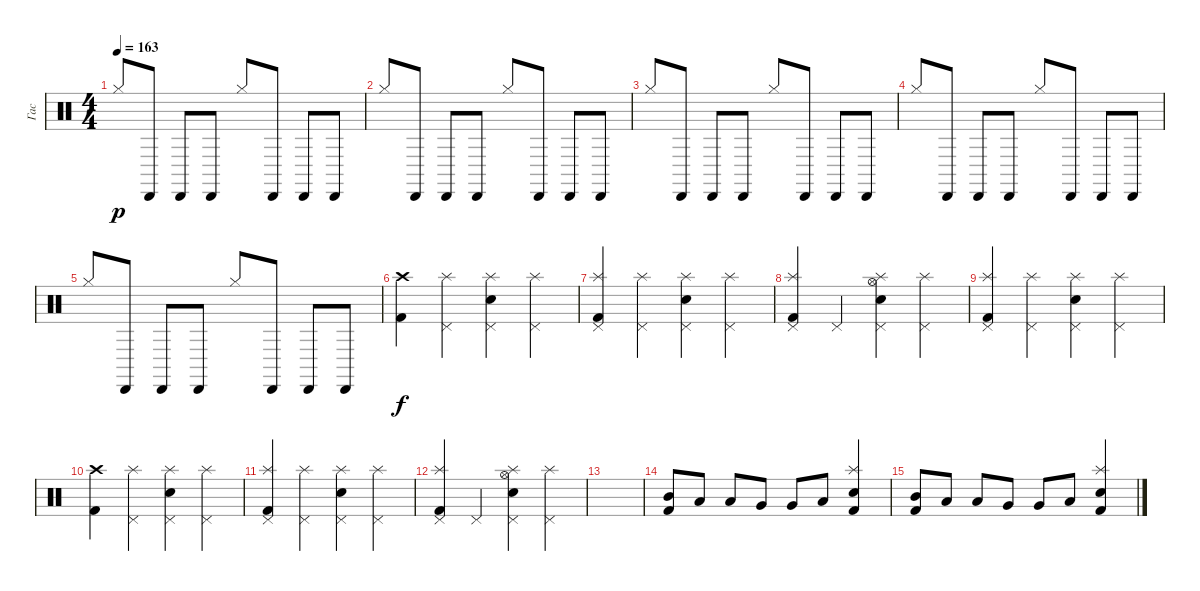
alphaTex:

\track ("Гас" "Гас") {instrument percussion}
\staff {score}
\articulation defaults
\ts (4 4)
\tempo 163
\clef neutral
\ks c "Hi-Hat (closed)".8{dy p} "Cabasa (hit)".8 "Cabasa (hit)".8 "Cabasa (hit)".8 "Hi-Hat (closed)".8 "Cabasa (hit)".8 "Cabasa (hit)".8 "Cabasa (hit)".8
|
"Hi-Hat (closed)".8 "Cabasa (hit)".8 "Cabasa (hit)".8 "Cabasa (hit)".8 "Hi-Hat (closed)".8 "Cabasa (hit)".8 "Cabasa (hit)".8 "Cabasa (hit)".8 |
"Hi-Hat (closed)".8 "Cabasa (hit)".8 "Cabasa (hit)".8 "Cabasa (hit)".8 "Hi-Hat (closed)".8 "Cabasa (hit)".8 "Cabasa (hit)".8 "Cabasa (hit)".8 |
"Hi-Hat (closed)".8 "Cabasa (hit)".8 "Cabasa (hit)".8 "Cabasa (hit)".8 "Hi-Hat (closed)".8 "Cabasa (hit)".8 "Cabasa (hit)".8 "Cabasa (hit)".8 |
"Hi-Hat (closed)".8 "Cabasa (hit)".8 "Cabasa (hit)".8 "Cabasa (hit)".8 "Hi-Hat (closed)".8 "Cabasa (hit)".8 "Cabasa (hit)".8 "Cabasa (hit)".8 |
("Crash high (hit)" "Kick (hit) 2").4{dy f} ("Splash (hit)" "Pedal Hi-Hat (hit)").4 ("Pedal Hi-Hat (hit)" "Splash (hit)" "Electric Snare (hit)").4 ("Splash (hit)" "Pedal Hi-Hat (hit)").4 |
("Pedal Hi-Hat (hit)" "Splash (hit)" "Kick (hit) 2").4 ("Splash (hit)" "Pedal Hi-Hat (hit)").4 ("Pedal Hi-Hat (hit)" "Splash (hit)" "Electric Snare (hit)").4 ("Splash (hit)" "Pedal Hi-Hat (hit)").4 |
("Pedal Hi-Hat (hit)" "Splash (hit)" "Kick (hit) 2").4 "Pedal Hi-Hat (hit)".4 ("Hi-Hat (open)" "Pedal Hi-Hat (hit)" "Splash (hit)" "Electric Snare (hit)").4 ("Splash (hit)" "Pedal Hi-Hat (hit)").4 |
("Pedal Hi-Hat (hit)" "Splash (hit)" "Kick (hit) 2").4 ("Splash (hit)" "Pedal Hi-Hat (hit)").4 ("Pedal Hi-Hat (hit)" "Splash (hit)" "Electric Snare (hit)").4 ("Splash (hit)" "Pedal Hi-Hat (hit)").4 |
("Crash high (hit)" "Kick (hit) 2").4 ("Splash (hit)" "Pedal Hi-Hat (hit)").4 ("Pedal Hi-Hat (hit)" "Splash (hit)" "Electric Snare (hit)").4 ("Splash (hit)" "Pedal Hi-Hat (hit)").4 |
("Pedal Hi-Hat (hit)" "Splash (hit)" "Kick (hit) 2").4 ("Splash (hit)" "Pedal Hi-Hat (hit)").4 ("Pedal Hi-Hat (hit)" "Splash (hit)" "Electric Snare (hit)").4 ("Splash (hit)" "Pedal Hi-Hat (hit)").4 |
("Pedal Hi-Hat (hit)" "Splash (hit)" "Kick (hit) 2").4 "Pedal Hi-Hat (hit)".4 ("Hi-Hat (open)" "Pedal Hi-Hat (hit)" "Splash (hit)" "Electric Snare (hit)").4 ("Splash (hit)" "Pedal Hi-Hat (hit)").4 |
|
("Kick (hit) 2" "Mid Tom (hit)").8 "Low Tom (hit)".8 "Low Tom (hit)".8 "Very Low Tom (hit)".8 "Very Low Tom (hit)".8 "Low Floor Tom (hit)".8 ("Splash (hit)" "Electric Snare (hit)" "Kick (hit) 2").4 |
("Kick (hit) 2" "Mid Tom (hit)").8 "Low Tom (hit)".8 "Low Tom (hit)".8 "Very Low Tom (hit)".8 "Very Low Tom (hit)".8 "Low Floor Tom (hit)".8 ("Splash (hit)" "Electric Snare (hit)" "Kick (hit) 2").4
